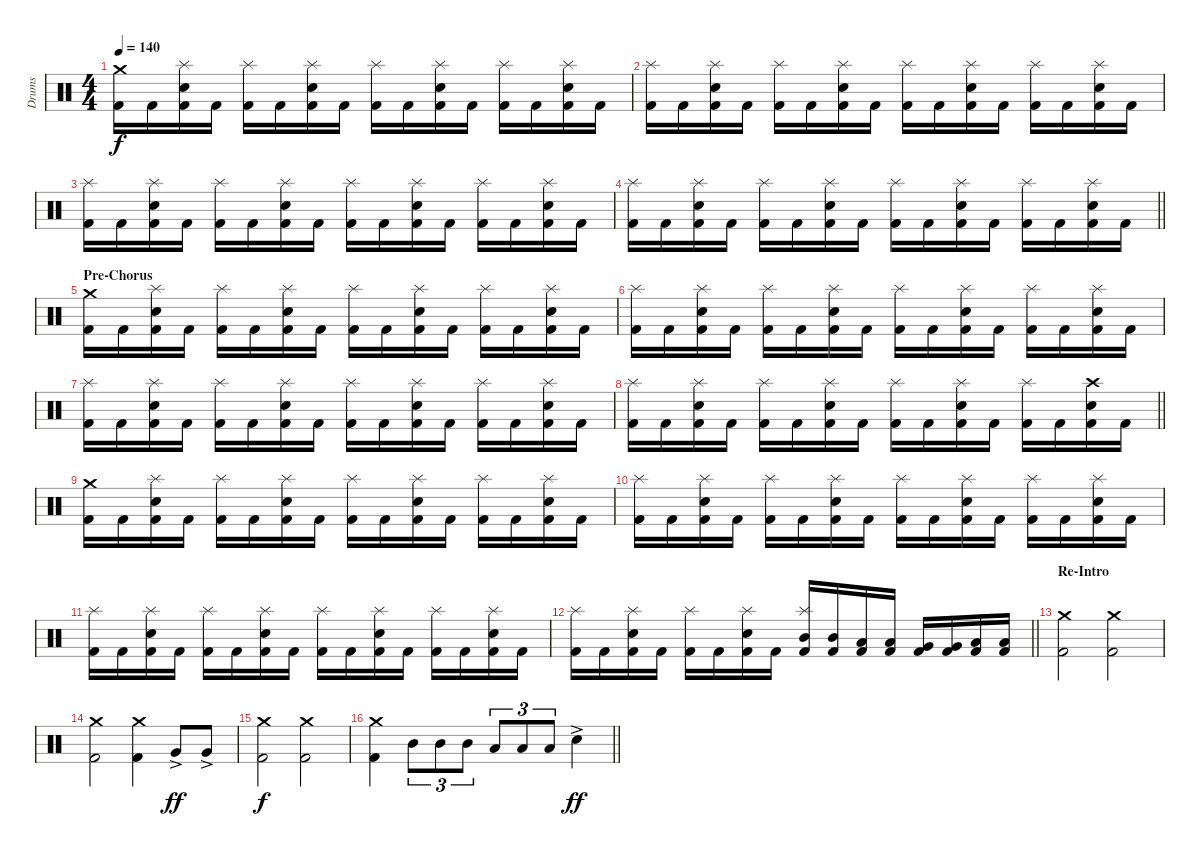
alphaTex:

\track ("Drums" "Drums") {instrument percussion}
\staff {score}
\articulation defaults
\ts (4 4)
\section ("" "")
\tempo 140
\clef neutral
\ks c
("Kick (hit) 2" "Crash medium (hit)").16{dy f} "Kick (hit) 2".16 ("Kick (hit) 2" "Snare (hit) 2" "Splash (hit)").16 "Kick (hit) 2".16 ("Kick (hit) 2" "Splash (hit)").16 "Kick (hit) 2".16 ("Kick (hit) 2" "Snare (hit) 2" "Splash (hit)").16 "Kick (hit) 2".16 ("Kick (hit) 2" "Splash (hit)").16 "Kick (hit) 2".16 ("Kick (hit) 2" "Snare (hit) 2" "Splash (hit)").16 "Kick (hit) 2".16 ("Kick (hit) 2" "Splash (hit)").16 "Kick (hit) 2".16 ("Kick (hit) 2" "Snare (hit) 2" "Splash (hit)").16 "Kick (hit) 2".16 |
("Kick (hit) 2" "Splash (hit)").16 "Kick (hit) 2".16 ("Kick (hit) 2" "Snare (hit) 2" "Splash (hit)").16 "Kick (hit) 2".16 ("Kick (hit) 2" "Splash (hit)").16 "Kick (hit) 2".16 ("Kick (hit) 2" "Snare (hit) 2" "Splash (hit)").16 "Kick (hit) 2".16 ("Kick (hit) 2" "Splash (hit)").16 "Kick (hit) 2".16 ("Kick (hit) 2" "Snare (hit) 2" "Splash (hit)").16 "Kick (hit) 2".16 ("Kick (hit) 2" "Splash (hit)").16 "Kick (hit) 2".16 ("Kick (hit) 2" "Snare (hit) 2" "Splash (hit)").16 "Kick (hit) 2".16 |
("Kick (hit) 2" "Splash (hit)").16 "Kick (hit) 2".16 ("Kick (hit) 2" "Snare (hit) 2" "Splash (hit)").16 "Kick (hit) 2".16 ("Kick (hit) 2" "Splash (hit)").16 "Kick (hit) 2".16 ("Kick (hit) 2" "Snare (hit) 2" "Splash (hit)").16 "Kick (hit) 2".16 ("Kick (hit) 2" "Splash (hit)").16 "Kick (hit) 2".16 ("Kick (hit) 2" "Snare (hit) 2" "Splash (hit)").16 "Kick (hit) 2".16 ("Kick (hit) 2" "Splash (hit)").16 "Kick (hit) 2".16 ("Kick (hit) 2" "Snare (hit) 2" "Splash (hit)").16 "Kick (hit) 2".16 |
\barLineRight lightlight
("Kick (hit) 2" "Splash (hit)").16 "Kick (hit) 2".16 ("Kick (hit) 2" "Snare (hit) 2" "Splash (hit)").16 "Kick (hit) 2".16 ("Kick (hit) 2" "Splash (hit)").16 "Kick (hit) 2".16 ("Kick (hit) 2" "Snare (hit) 2" "Splash (hit)").16 "Kick (hit) 2".16 ("Kick (hit) 2" "Splash (hit)").16 "Kick (hit) 2".16 ("Kick (hit) 2" "Snare (hit) 2" "Splash (hit)").16 "Kick (hit) 2".16 ("Kick (hit) 2" "Splash (hit)").16 "Kick (hit) 2".16 ("Kick (hit) 2" "Snare (hit) 2" "Splash (hit)").16 "Kick (hit) 2".16 |
\section ("" "Pre-Chorus")
("Kick (hit) 2" "Crash medium (hit)").16 "Kick (hit) 2".16 ("Kick (hit) 2" "Snare (hit) 2" "Splash (hit)").16 "Kick (hit) 2".16 ("Kick (hit) 2" "Splash (hit)").16 "Kick (hit) 2".16 ("Kick (hit) 2" "Snare (hit) 2" "Splash (hit)").16 "Kick (hit) 2".16 ("Kick (hit) 2" "Splash (hit)").16 "Kick (hit) 2".16 ("Kick (hit) 2" "Snare (hit) 2" "Splash (hit)").16 "Kick (hit) 2".16 ("Kick (hit) 2" "Splash (hit)").16 "Kick (hit) 2".16 ("Kick (hit) 2" "Snare (hit) 2" "Splash (hit)").16 "Kick (hit) 2".16 |
("Kick (hit) 2" "Splash (hit)").16 "Kick (hit) 2".16 ("Kick (hit) 2" "Snare (hit) 2" "Splash (hit)").16 "Kick (hit) 2".16 ("Kick (hit) 2" "Splash (hit)").16 "Kick (hit) 2".16 ("Kick (hit) 2" "Snare (hit) 2" "Splash (hit)").16 "Kick (hit) 2".16 ("Kick (hit) 2" "Splash (hit)").16 "Kick (hit) 2".16 ("Kick (hit) 2" "Snare (hit) 2" "Splash (hit)").16 "Kick (hit) 2".16 ("Kick (hit) 2" "Splash (hit)").16 "Kick (hit) 2".16 ("Kick (hit) 2" "Snare (hit) 2" "Splash (hit)").16 "Kick (hit) 2".16 |
("Kick (hit) 2" "Splash (hit)").16 "Kick (hit) 2".16 ("Kick (hit) 2" "Snare (hit) 2" "Splash (hit)").16 "Kick (hit) 2".16 ("Kick (hit) 2" "Splash (hit)").16 "Kick (hit) 2".16 ("Kick (hit) 2" "Snare (hit) 2" "Splash (hit)").16 "Kick (hit) 2".16 ("Kick (hit) 2" "Splash (hit)").16 "Kick (hit) 2".16 ("Kick (hit) 2" "Snare (hit) 2" "Splash (hit)").16 "Kick (hit) 2".16 ("Kick (hit) 2" "Splash (hit)").16 "Kick (hit) 2".16 ("Kick (hit) 2" "Snare (hit) 2" "Splash (hit)").16 "Kick (hit) 2".16 |
\barLineRight lightlight
("Kick (hit) 2" "Splash (hit)").16 "Kick (hit) 2".16 ("Kick (hit) 2" "Snare (hit) 2" "Splash (hit)").16 "Kick (hit) 2".16 ("Kick (hit) 2" "Splash (hit)").16 "Kick (hit) 2".16 ("Kick (hit) 2" "Snare (hit) 2" "Splash (hit)").16 "Kick (hit) 2".16 ("Kick (hit) 2" "Splash (hit)").16 "Kick (hit) 2".16 ("Kick (hit) 2" "Snare (hit) 2" "Splash (hit)").16 "Kick (hit) 2".16 ("Kick (hit) 2" "Splash (hit)").16 "Kick (hit) 2".16 ("Kick (hit) 2" "Snare (hit) 2" "Crash high (hit)").16 "Kick (hit) 2".16 |
\section ("" "")
("Kick (hit) 2" "Crash medium (hit)").16 "Kick (hit) 2".16 ("Kick (hit) 2" "Snare (hit) 2" "Splash (hit)").16 "Kick (hit) 2".16 ("Kick (hit) 2" "Splash (hit)").16 "Kick (hit) 2".16 ("Kick (hit) 2" "Snare (hit) 2" "Splash (hit)").16 "Kick (hit) 2".16 ("Kick (hit) 2" "Splash (hit)").16 "Kick (hit) 2".16 ("Kick (hit) 2" "Snare (hit) 2" "Splash (hit)").16 "Kick (hit) 2".16 ("Kick (hit) 2" "Splash (hit)").16 "Kick (hit) 2".16 ("Kick (hit) 2" "Snare (hit) 2" "Splash (hit)").16 "Kick (hit) 2".16 |
("Kick (hit) 2" "Splash (hit)").16 "Kick (hit) 2".16 ("Kick (hit) 2" "Snare (hit) 2" "Splash (hit)").16 "Kick (hit) 2".16 ("Kick (hit) 2" "Splash (hit)").16 "Kick (hit) 2".16 ("Kick (hit) 2" "Snare (hit) 2" "Splash (hit)").16 "Kick (hit) 2".16 ("Kick (hit) 2" "Splash (hit)").16 "Kick (hit) 2".16 ("Kick (hit) 2" "Snare (hit) 2" "Splash (hit)").16 "Kick (hit) 2".16 ("Kick (hit) 2" "Splash (hit)").16 "Kick (hit) 2".16 ("Kick (hit) 2" "Snare (hit) 2" "Splash (hit)").16 "Kick (hit) 2".16 |
("Kick (hit) 2" "Splash (hit)").16 "Kick (hit) 2".16 ("Kick (hit) 2" "Snare (hit) 2" "Splash (hit)").16 "Kick (hit) 2".16 ("Kick (hit) 2" "Splash (hit)").16 "Kick (hit) 2".16 ("Kick (hit) 2" "Snare (hit) 2" "Splash (hit)").16 "Kick (hit) 2".16 ("Kick (hit) 2" "Splash (hit)").16 "Kick (hit) 2".16 ("Kick (hit) 2" "Snare (hit) 2" "Splash (hit)").16 "Kick (hit) 2".16 ("Kick (hit) 2" "Splash (hit)").16 "Kick (hit) 2".16 ("Kick (hit) 2" "Snare (hit) 2" "Splash (hit)").16 "Kick (hit) 2".16 |
\barLineRight lightlight
("Kick (hit) 2" "Splash (hit)").16 "Kick (hit) 2".16 ("Kick (hit) 2" "Snare (hit) 2" "Splash (hit)").16 "Kick (hit) 2".16 ("Kick (hit) 2" "Splash (hit)").16 "Kick (hit) 2".16 ("Kick (hit) 2" "Snare (hit) 2" "Splash (hit)").16 "Kick (hit) 2".16 ("Kick (hit) 2" "Mid Tom (hit)" "Splash (hit)").16 ("Kick (hit) 2" "Mid Tom (hit)").16 ("Kick (hit) 2" "Low Tom (hit)").16 ("Kick (hit) 2" "Low Tom (hit)").16 ("Kick (hit) 2" "Very Low Tom (hit)").16 ("Kick (hit) 2" "Very Low Tom (hit)").16 ("Kick (hit) 2" "Low Floor Tom (hit)").16 ("Kick (hit) 2" "Low Floor Tom (hit)").16 |
\section ("" "Re-Intro")
("Kick (hit) 2" "Crash medium (hit)").2 ("Kick (hit) 2" "Crash medium (hit)").2 |
("Kick (hit) 2" "Crash medium (hit)").2 ("Kick (hit) 2" "Crash medium (hit)").4 "Very Low Tom (hit)"{ac}.8{dy ff} "Very Low Tom (hit)"{ac}.8 |
("Kick (hit) 2" "Crash medium (hit)").2{dy f} ("Kick (hit) 2" "Crash medium (hit)").2 |
\barLineRight lightlight
("Kick (hit) 2" "Crash medium (hit)").4 "Mid Tom (hit)".8{tu (3 2)} "Mid Tom (hit)".8{tu (3 2)} "Mid Tom (hit)".8{tu (3 2)} "Low Tom (hit)".8{tu (3 2)} "Low Tom (hit)".8{tu (3 2)} "Low Tom (hit)".8{tu (3 2)} "Snare (hit) 2"{ac}.4{dy ff}
